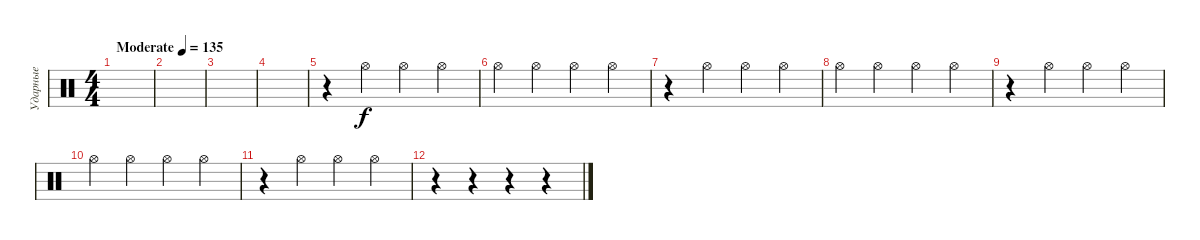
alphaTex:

\track ("Ударные" "Ударные") {instrument percussion}
\staff {score}
\articulation defaults
\ts (4 4)
\tempo (135 "Moderate")
\clef neutral
\ks c
|
|
|
|
r.4 "Hi-Hat (open)".4 "Hi-Hat (open)".4 "Hi-Hat (open)".4 |
"Hi-Hat (open)".4 "Hi-Hat (open)".4 "Hi-Hat (open)".4 "Hi-Hat (open)".4 |
r.4 "Hi-Hat (open)".4 "Hi-Hat (open)".4 "Hi-Hat (open)".4 |
"Hi-Hat (open)".4 "Hi-Hat (open)".4 "Hi-Hat (open)".4 "Hi-Hat (open)".4 |
r.4 "Hi-Hat (open)".4 "Hi-Hat (open)".4 "Hi-Hat (open)".4 |
"Hi-Hat (open)".4 "Hi-Hat (open)".4 "Hi-Hat (open)".4 "Hi-Hat (open)".4 |
r.4 "Hi-Hat (open)".4 "Hi-Hat (open)".4 "Hi-Hat (open)".4 |
r.4 r.4 r.4 r.4
